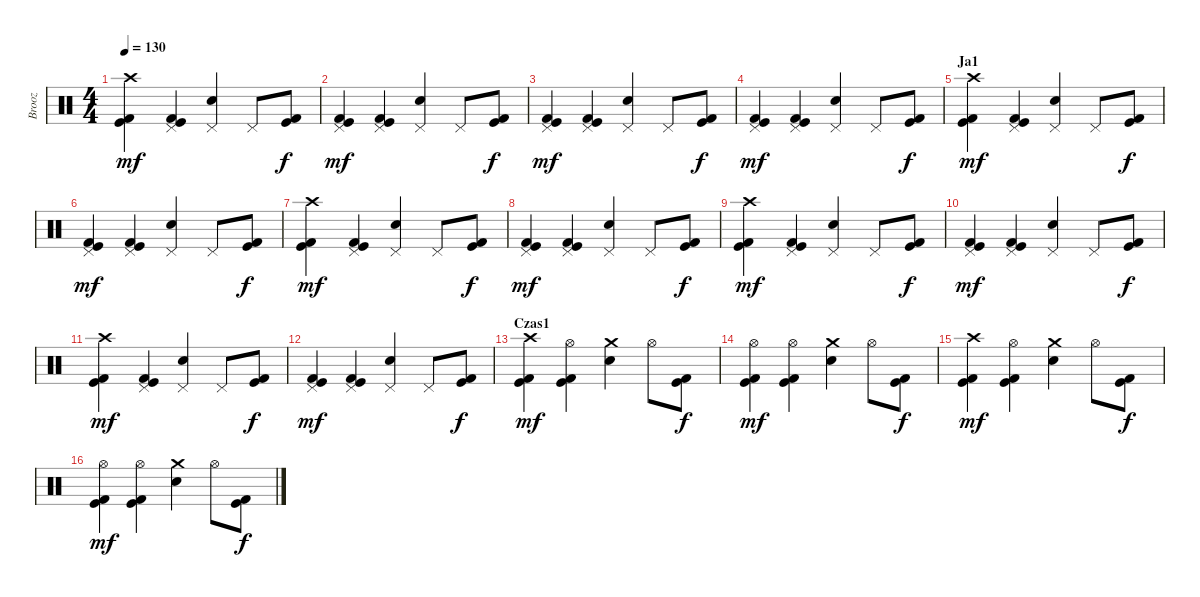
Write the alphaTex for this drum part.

\track ("Brooz" "Brooz") {instrument percussion}
\staff {score}
\articulation defaults
\ts (4 4)
\tempo 130
\clef neutral
\ks c
("Kick (hit) 2" "Kick (hit)" "Crash high (hit)").4{dy mf} ("Pedal Hi-Hat (hit)" "Kick (hit) 2" "Kick (hit)").4 ("Pedal Hi-Hat (hit)" "Snare (hit) 2").4 "Pedal Hi-Hat (hit)".8 ("Kick (hit) 2" "Kick (hit)").8{dy f} |
("Kick (hit) 2" "Kick (hit)" "Pedal Hi-Hat (hit)").4{dy mf} ("Pedal Hi-Hat (hit)" "Kick (hit) 2" "Kick (hit)").4 ("Snare (hit) 2" "Pedal Hi-Hat (hit)").4 "Pedal Hi-Hat (hit)".8 ("Kick (hit) 2" "Kick (hit)").8{dy f} |
("Kick (hit) 2" "Kick (hit)" "Pedal Hi-Hat (hit)").4{dy mf} ("Pedal Hi-Hat (hit)" "Kick (hit) 2" "Kick (hit)").4 ("Pedal Hi-Hat (hit)" "Snare (hit) 2").4 "Pedal Hi-Hat (hit)".8 ("Kick (hit) 2" "Kick (hit)").8{dy f} |
("Kick (hit) 2" "Kick (hit)" "Pedal Hi-Hat (hit)").4{dy mf} ("Pedal Hi-Hat (hit)" "Kick (hit) 2" "Kick (hit)").4 ("Snare (hit) 2" "Pedal Hi-Hat (hit)").4 "Pedal Hi-Hat (hit)".8 ("Kick (hit) 2" "Kick (hit)").8{dy f} |
\section ("" "Ja1")
("Kick (hit) 2" "Kick (hit)" "Crash high (hit)").4{dy mf} ("Pedal Hi-Hat (hit)" "Kick (hit) 2" "Kick (hit)").4 ("Pedal Hi-Hat (hit)" "Snare (hit) 2").4 "Pedal Hi-Hat (hit)".8 ("Kick (hit) 2" "Kick (hit)").8{dy f} |
("Kick (hit) 2" "Kick (hit)" "Pedal Hi-Hat (hit)").4{dy mf} ("Pedal Hi-Hat (hit)" "Kick (hit) 2" "Kick (hit)").4 ("Snare (hit) 2" "Pedal Hi-Hat (hit)").4 "Pedal Hi-Hat (hit)".8 ("Kick (hit) 2" "Kick (hit)").8{dy f} |
("Kick (hit) 2" "Kick (hit)" "Crash high (hit)").4{dy mf} ("Pedal Hi-Hat (hit)" "Kick (hit) 2" "Kick (hit)").4 ("Pedal Hi-Hat (hit)" "Snare (hit) 2").4 "Pedal Hi-Hat (hit)".8 ("Kick (hit) 2" "Kick (hit)").8{dy f} |
("Kick (hit) 2" "Kick (hit)" "Pedal Hi-Hat (hit)").4{dy mf} ("Pedal Hi-Hat (hit)" "Kick (hit) 2" "Kick (hit)").4 ("Snare (hit) 2" "Pedal Hi-Hat (hit)").4 "Pedal Hi-Hat (hit)".8 ("Kick (hit) 2" "Kick (hit)").8{dy f} |
("Kick (hit) 2" "Kick (hit)" "Crash high (hit)").4{dy mf} ("Pedal Hi-Hat (hit)" "Kick (hit) 2" "Kick (hit)").4 ("Pedal Hi-Hat (hit)" "Snare (hit) 2").4 "Pedal Hi-Hat (hit)".8 ("Kick (hit) 2" "Kick (hit)").8{dy f} |
("Kick (hit) 2" "Kick (hit)" "Pedal Hi-Hat (hit)").4{dy mf} ("Pedal Hi-Hat (hit)" "Kick (hit) 2" "Kick (hit)").4 ("Snare (hit) 2" "Pedal Hi-Hat (hit)").4 "Pedal Hi-Hat (hit)".8 ("Kick (hit) 2" "Kick (hit)").8{dy f} |
("Kick (hit) 2" "Kick (hit)" "Crash high (hit)").4{dy mf} ("Pedal Hi-Hat (hit)" "Kick (hit) 2" "Kick (hit)").4 ("Pedal Hi-Hat (hit)" "Snare (hit) 2").4 "Pedal Hi-Hat (hit)".8 ("Kick (hit) 2" "Kick (hit)").8{dy f} |
("Kick (hit) 2" "Kick (hit)" "Pedal Hi-Hat (hit)").4{dy mf} ("Pedal Hi-Hat (hit)" "Kick (hit) 2" "Kick (hit)").4 ("Snare (hit) 2" "Pedal Hi-Hat (hit)").4 "Pedal Hi-Hat (hit)".8 ("Kick (hit) 2" "Kick (hit)").8{dy f} |
\section ("" "Czas1")
("Kick (hit) 2" "Kick (hit)" "Crash high (hit)").4{dy mf} ("Hi-Hat (open)" "Kick (hit) 2" "Kick (hit)").4 ("Crash medium (hit)" "Snare (hit) 2").4 "Hi-Hat (open)".8 ("Kick (hit) 2" "Kick (hit)").8{dy f} |
("Kick (hit) 2" "Kick (hit)" "Hi-Hat (open)").4{dy mf} ("Hi-Hat (open)" "Kick (hit) 2" "Kick (hit)").4 ("Snare (hit) 2" "Crash medium (hit)").4 "Hi-Hat (open)".8 ("Kick (hit) 2" "Kick (hit)").8{dy f} |
("Kick (hit) 2" "Kick (hit)" "Crash high (hit)").4{dy mf} ("Hi-Hat (open)" "Kick (hit) 2" "Kick (hit)").4 ("Crash medium (hit)" "Snare (hit) 2").4 "Hi-Hat (open)".8 ("Kick (hit) 2" "Kick (hit)").8{dy f} |
("Kick (hit) 2" "Kick (hit)" "Hi-Hat (open)").4{dy mf} ("Hi-Hat (open)" "Kick (hit) 2" "Kick (hit)").4 ("Snare (hit) 2" "Crash medium (hit)").4 "Hi-Hat (open)".8 ("Kick (hit) 2" "Kick (hit)").8{dy f}
